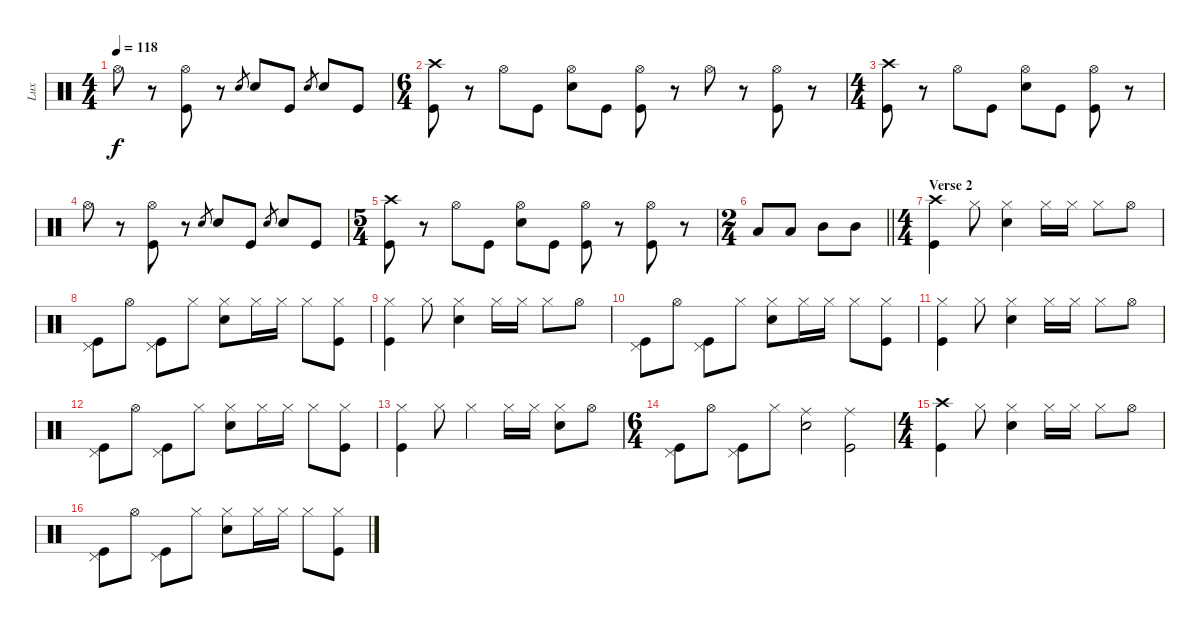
\track ("Lux" "Lux") {instrument percussion}
\staff {score}
\articulation defaults
\ts (4 4)
\tempo 118
\clef neutral
\ks c "Hi-Hat (open)".8{dy f}
r.8 ("Hi-Hat (open)" "Kick (hit)").8 r.8 "Snare (hit) 2".8{gr} "Snare (hit) 2".8 "Kick (hit)".8 "Snare (hit) 2".8{gr} "Snare (hit) 2".8 "Kick (hit)".8 |
\ts (6 4)
("Crash high (hit)" "Kick (hit)").8 r.8 "Hi-Hat (open)".8 "Kick (hit)".8 ("Hi-Hat (open)" "Snare (hit) 2").8 "Kick (hit)".8 ("Hi-Hat (open)" "Kick (hit)").8 r.8 "Hi-Hat (open)".8 r.8 ("Hi-Hat (open)" "Kick (hit)").8 r.8 |
\ts (4 4)
("Crash high (hit)" "Kick (hit)").8 r.8 "Hi-Hat (open)".8 "Kick (hit)".8 ("Hi-Hat (open)" "Snare (hit) 2").8 "Kick (hit)".8 ("Hi-Hat (open)" "Kick (hit)").8 r.8 |
"Hi-Hat (open)".8 r.8 ("Hi-Hat (open)" "Kick (hit)").8 r.8 "Snare (hit) 2".8{gr} "Snare (hit) 2".8 "Kick (hit)".8 "Snare (hit) 2".8{gr} "Snare (hit) 2".8 "Kick (hit)".8 |
\ts (5 4)
("Crash high (hit)" "Kick (hit)").8 r.8 "Hi-Hat (open)".8 "Kick (hit)".8 ("Hi-Hat (open)" "Snare (hit) 2").8 "Kick (hit)".8 ("Hi-Hat (open)" "Kick (hit)").8 r.8 ("Hi-Hat (open)" "Kick (hit)").8 r.8 |
\ts (2 4)
\barLineRight lightlight "Low Tom (hit)".8 "Low Tom (hit)".8 "Mid Tom (hit)".8 "Mid Tom (hit)".8
|
\ts (4 4)
\section ("" "Verse 2")
("Crash high (hit)" "Kick (hit)").4 "Hi-Hat (closed)".8 ("Hi-Hat (closed)" "Snare (hit) 2").4 "Hi-Hat (closed)".16 "Hi-Hat (closed)".16 "Hi-Hat (closed)".8 "Hi-Hat (open)".8 |
("Kick (hit)" "Pedal Hi-Hat (hit)").8 "Hi-Hat (open)".8 ("Kick (hit)" "Pedal Hi-Hat (hit)").8 "Hi-Hat (closed)".8 ("Hi-Hat (closed)" "Snare (hit) 2").8 "Hi-Hat (closed)".16 "Hi-Hat (closed)".16 "Hi-Hat (closed)".8 ("Hi-Hat (closed)" "Kick (hit)").8 |
("Hi-Hat (closed)" "Kick (hit)").4 "Hi-Hat (closed)".8 ("Hi-Hat (closed)" "Snare (hit) 2").4 "Hi-Hat (closed)".16 "Hi-Hat (closed)".16 "Hi-Hat (closed)".8 "Hi-Hat (open)".8 |
("Kick (hit)" "Pedal Hi-Hat (hit)").8 "Hi-Hat (open)".8 ("Kick (hit)" "Pedal Hi-Hat (hit)").8 "Hi-Hat (closed)".8 ("Hi-Hat (closed)" "Snare (hit) 2").8 "Hi-Hat (closed)".16 "Hi-Hat (closed)".16 "Hi-Hat (closed)".8 ("Hi-Hat (closed)" "Kick (hit)").8 |
("Hi-Hat (closed)" "Kick (hit)").4 "Hi-Hat (closed)".8 ("Hi-Hat (closed)" "Snare (hit) 2").4 "Hi-Hat (closed)".16 "Hi-Hat (closed)".16 "Hi-Hat (closed)".8 "Hi-Hat (open)".8 |
("Kick (hit)" "Pedal Hi-Hat (hit)").8 "Hi-Hat (open)".8 ("Kick (hit)" "Pedal Hi-Hat (hit)").8 "Hi-Hat (closed)".8 ("Hi-Hat (closed)" "Snare (hit) 2").8 "Hi-Hat (closed)".16 "Hi-Hat (closed)".16 "Hi-Hat (closed)".8 ("Hi-Hat (closed)" "Kick (hit)").8 |
("Hi-Hat (closed)" "Kick (hit)").4 "Hi-Hat (closed)".8 "Hi-Hat (closed)".4 "Hi-Hat (closed)".16 "Hi-Hat (closed)".16 ("Hi-Hat (closed)" "Snare (hit) 2").8 "Hi-Hat (open)".8 |
\ts (6 4)
("Kick (hit)" "Pedal Hi-Hat (hit)").8 "Hi-Hat (open)".8 ("Kick (hit)" "Pedal Hi-Hat (hit)").8 "Hi-Hat (closed)".8 ("Ride (middle)" "Snare (hit) 2").2 ("Ride (middle)" "Kick (hit)").2 |
\ts (4 4)
("Crash high (hit)" "Kick (hit)").4 "Hi-Hat (closed)".8 ("Hi-Hat (closed)" "Snare (hit) 2").4 "Hi-Hat (closed)".16 "Hi-Hat (closed)".16 "Hi-Hat (closed)".8 "Hi-Hat (open)".8 |
("Kick (hit)" "Pedal Hi-Hat (hit)").8 "Hi-Hat (open)".8 ("Kick (hit)" "Pedal Hi-Hat (hit)").8 "Hi-Hat (closed)".8 ("Hi-Hat (closed)" "Snare (hit) 2").8 "Hi-Hat (closed)".16 "Hi-Hat (closed)".16 "Hi-Hat (closed)".8 ("Hi-Hat (closed)" "Kick (hit)").8
